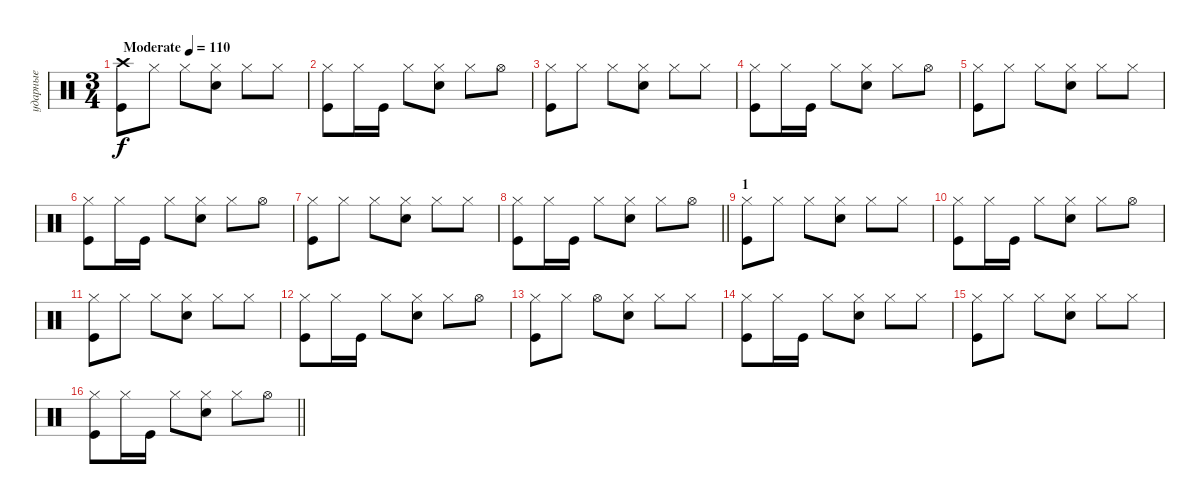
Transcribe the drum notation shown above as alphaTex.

\track ("ударные" "ударные") {instrument percussion}
\staff {score}
\articulation defaults
\ts (3 4)
\tempo (110 "Moderate")
\clef neutral
\ks c
("Crash high (hit)" "Kick (hit)").8{dy f} "Hi-Hat (closed)".8 "Hi-Hat (closed)".8 ("Hi-Hat (closed)" "Electric Snare (hit)").8 "Hi-Hat (closed)".8 "Hi-Hat (closed)".8 |
("Hi-Hat (closed)" "Kick (hit)").8 "Hi-Hat (closed)".16 "Kick (hit)".16 "Hi-Hat (closed)".8 ("Hi-Hat (closed)" "Electric Snare (hit)").8 "Hi-Hat (closed)".8 "Hi-Hat (open)".8 |
("Hi-Hat (closed)" "Kick (hit)").8 "Hi-Hat (closed)".8 "Hi-Hat (closed)".8 ("Hi-Hat (closed)" "Electric Snare (hit)").8 "Hi-Hat (closed)".8 "Hi-Hat (closed)".8 |
("Hi-Hat (closed)" "Kick (hit)").8 "Hi-Hat (closed)".16 "Kick (hit)".16 "Hi-Hat (closed)".8 ("Hi-Hat (closed)" "Electric Snare (hit)").8 "Hi-Hat (closed)".8 "Hi-Hat (open)".8 |
("Hi-Hat (closed)" "Kick (hit)").8 "Hi-Hat (closed)".8 "Hi-Hat (closed)".8 ("Hi-Hat (closed)" "Electric Snare (hit)").8 "Hi-Hat (closed)".8 "Hi-Hat (closed)".8 |
("Hi-Hat (closed)" "Kick (hit)").8 "Hi-Hat (closed)".16 "Kick (hit)".16 "Hi-Hat (closed)".8 ("Hi-Hat (closed)" "Electric Snare (hit)").8 "Hi-Hat (closed)".8 "Hi-Hat (open)".8 |
("Hi-Hat (closed)" "Kick (hit)").8 "Hi-Hat (closed)".8 "Hi-Hat (closed)".8 ("Hi-Hat (closed)" "Electric Snare (hit)").8 "Hi-Hat (closed)".8 "Hi-Hat (closed)".8 |
\barLineRight lightlight
("Hi-Hat (closed)" "Kick (hit)").8 "Hi-Hat (closed)".16 "Kick (hit)".16 "Hi-Hat (closed)".8 ("Hi-Hat (closed)" "Electric Snare (hit)").8 "Hi-Hat (closed)".8 "Hi-Hat (open)".8 |
\section ("" "1")
("Hi-Hat (closed)" "Kick (hit)").8 "Hi-Hat (closed)".8 "Hi-Hat (closed)".8 ("Hi-Hat (closed)" "Electric Snare (hit)").8 "Hi-Hat (closed)".8 "Hi-Hat (closed)".8 |
("Hi-Hat (closed)" "Kick (hit)").8 "Hi-Hat (closed)".16 "Kick (hit)".16 "Hi-Hat (closed)".8 ("Hi-Hat (closed)" "Electric Snare (hit)").8 "Hi-Hat (closed)".8 "Hi-Hat (open)".8 |
("Hi-Hat (closed)" "Kick (hit)").8 "Hi-Hat (closed)".8 "Hi-Hat (closed)".8 ("Hi-Hat (closed)" "Electric Snare (hit)").8 "Hi-Hat (closed)".8 "Hi-Hat (closed)".8 |
("Hi-Hat (closed)" "Kick (hit)").8 "Hi-Hat (closed)".16 "Kick (hit)".16 "Hi-Hat (closed)".8 ("Hi-Hat (closed)" "Electric Snare (hit)").8 "Hi-Hat (closed)".8 "Hi-Hat (open)".8 |
("Hi-Hat (closed)" "Kick (hit)").8 "Hi-Hat (closed)".8 "Hi-Hat (open)".8 ("Hi-Hat (closed)" "Electric Snare (hit)").8 "Hi-Hat (closed)".8 "Hi-Hat (closed)".8 |
("Hi-Hat (closed)" "Kick (hit)").8 "Hi-Hat (closed)".16 "Kick (hit)".16 "Hi-Hat (closed)".8 ("Hi-Hat (closed)" "Electric Snare (hit)").8 "Hi-Hat (closed)".8 "Hi-Hat (closed)".8 |
("Hi-Hat (closed)" "Kick (hit)").8 "Hi-Hat (closed)".8 "Hi-Hat (closed)".8 ("Hi-Hat (closed)" "Electric Snare (hit)").8 "Hi-Hat (closed)".8 "Hi-Hat (closed)".8 |
\barLineRight lightlight
("Hi-Hat (closed)" "Kick (hit)").8 "Hi-Hat (closed)".16 "Kick (hit)".16 "Hi-Hat (closed)".8 ("Hi-Hat (closed)" "Electric Snare (hit)").8 "Hi-Hat (closed)".8 "Hi-Hat (open)".8
